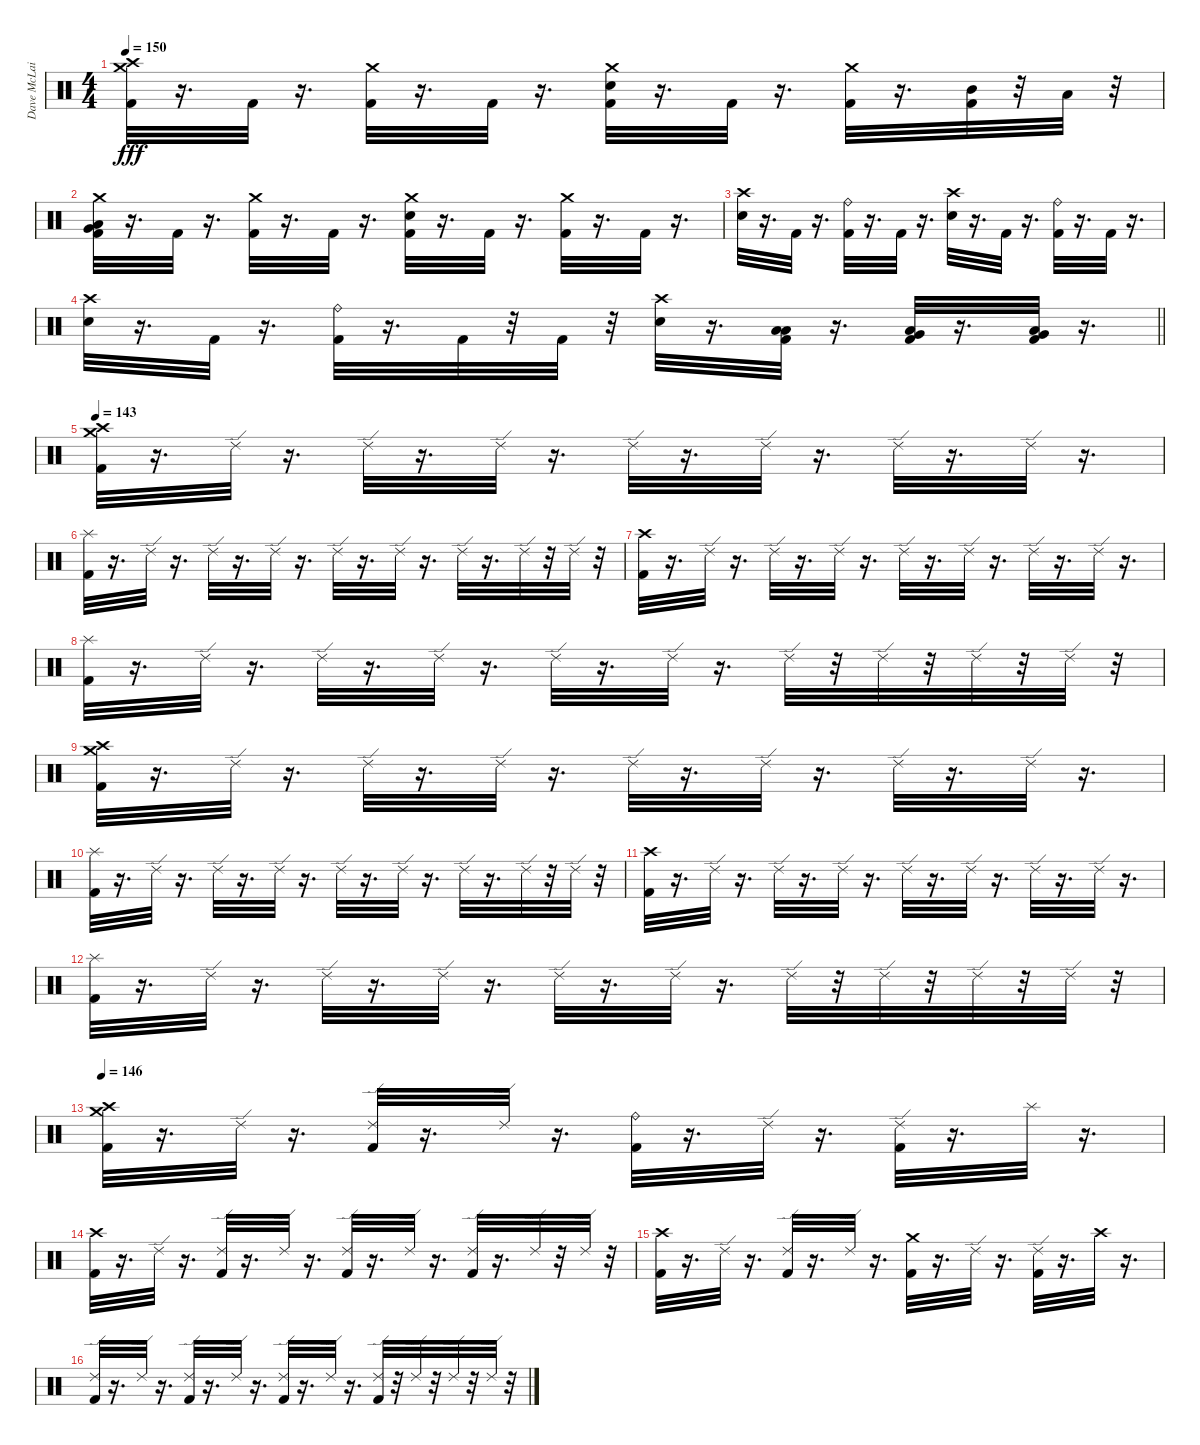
\track ("Dave McLain" "Dave McLai") {instrument percussion}
\staff {score}
\articulation defaults
\ts (4 4)
\tempo 150
\clef neutral
\ks c
("Crash high (hit)" "Crash medium (hit)" "Kick (hit) 2").32{dy fff} r.16{d} "Kick (hit) 2".32 r.16{d} ("Crash medium (hit)" "Kick (hit) 2").32 r.16{d} "Kick (hit) 2".32 r.16{d} ("Crash medium (hit)" "Snare (hit) 2" "Kick (hit) 2").32 r.16{d} "Kick (hit) 2".32 r.16{d} ("Crash medium (hit)" "Kick (hit) 2").32 r.16{d} ("Mid Tom (hit)" "Kick (hit) 2").32 r.32 "Low Tom (hit)".32 r.32 |
("Low Floor Tom (hit)" "Very Low Tom (hit)" "Crash medium (hit)" "Kick (hit) 2").32 r.16{d} "Kick (hit) 2".32 r.16{d} ("Crash medium (hit)" "Kick (hit) 2").32 r.16{d} "Kick (hit) 2".32 r.16{d} ("Crash medium (hit)" "Snare (hit) 2" "Kick (hit) 2").32 r.16{d} "Kick (hit) 2".32 r.16{d} ("Crash medium (hit)" "Kick (hit) 2").32 r.16{d} "Kick (hit) 2".32 r.16{d} |
("Snare (hit) 2" "Crash high (hit)").32 r.16{d} "Kick (hit) 2".32 r.16{d} ("Ride (bell)" "Kick (hit) 2").32 r.16{d} "Kick (hit) 2".32 r.16{d} ("Crash high (hit)" "Snare (hit) 2").32 r.16{d} "Kick (hit) 2".32 r.16{d} ("Ride (bell)" "Kick (hit) 2").32 r.16{d} "Kick (hit) 2".32 r.16{d} |
\barLineRight lightlight
("Crash high (hit)" "Snare (hit) 2").32 r.16{d} "Kick (hit) 2".32 r.16{d} ("Ride (bell)" "Kick (hit) 2").32 r.16{d} "Kick (hit) 2".32 r.32 "Kick (hit) 2".32 r.32 ("Crash high (hit)" "Snare (hit) 2").32 r.16{d} ("Low Tom (hit)" "Low Floor Tom (hit)" "Kick (hit) 2").32 r.16{d} ("Very Low Tom (hit)" "Low Floor Tom (hit)" "Kick (hit) 2").32 r.16{d} ("Very Low Tom (hit)" "Low Floor Tom (hit)" "Kick (hit) 2").32 r.16{d} |
\tempo 143
("Crash medium (hit)" "Crash high (hit)" "Kick (hit) 2").32 r.16{d} "Ride (edge) 2".32 r.16{d} "Ride (edge) 2".32 r.16{d} "Ride (edge) 2".32 r.16{d} "Ride (edge) 2".32 r.16{d} "Ride (edge) 2".32 r.16{d} "Ride (edge) 2".32 r.16{d} "Ride (edge) 2".32 r.16{d} |
("Splash (hit)" "Kick (hit) 2").32 r.16{d} "Ride (edge) 2".32 r.16{d} "Ride (edge) 2".32 r.16{d} "Ride (edge) 2".32 r.16{d} "Ride (edge) 2".32 r.16{d} "Ride (edge) 2".32 r.16{d} "Ride (edge) 2".32 r.16{d} "Ride (edge) 2".32 r.32 "Ride (edge) 2".32 r.32 |
("Crash high (hit)" "Kick (hit) 2").32 r.16{d} "Ride (edge) 2".32 r.16{d} "Ride (edge) 2".32 r.16{d} "Ride (edge) 2".32 r.16{d} "Ride (edge) 2".32 r.16{d} "Ride (edge) 2".32 r.16{d} "Ride (edge) 2".32 r.16{d} "Ride (edge) 2".32 r.16{d} |
("Splash (hit)" "Kick (hit) 2").32 r.16{d} "Ride (edge) 2".32 r.16{d} "Ride (edge) 2".32 r.16{d} "Ride (edge) 2".32 r.16{d} "Ride (edge) 2".32 r.16{d} "Ride (edge) 2".32 r.16{d} "Ride (edge) 2".32 r.32 "Ride (edge) 2".32 r.32 "Ride (edge) 2".32 r.32 "Ride (edge) 2".32 r.32 |
("Crash medium (hit)" "Crash high (hit)" "Kick (hit) 2").32 r.16{d} "Ride (edge) 2".32 r.16{d} "Ride (edge) 2".32 r.16{d} "Ride (edge) 2".32 r.16{d} "Ride (edge) 2".32 r.16{d} "Ride (edge) 2".32 r.16{d} "Ride (edge) 2".32 r.16{d} "Ride (edge) 2".32 r.16{d} |
("Splash (hit)" "Kick (hit) 2").32 r.16{d} "Ride (edge) 2".32 r.16{d} "Ride (edge) 2".32 r.16{d} "Ride (edge) 2".32 r.16{d} "Ride (edge) 2".32 r.16{d} "Ride (edge) 2".32 r.16{d} "Ride (edge) 2".32 r.16{d} "Ride (edge) 2".32 r.32 "Ride (edge) 2".32 r.32 |
("Crash high (hit)" "Kick (hit) 2").32 r.16{d} "Ride (edge) 2".32 r.16{d} "Ride (edge) 2".32 r.16{d} "Ride (edge) 2".32 r.16{d} "Ride (edge) 2".32 r.16{d} "Ride (edge) 2".32 r.16{d} "Ride (edge) 2".32 r.16{d} "Ride (edge) 2".32 r.16{d} |
("Splash (hit)" "Kick (hit) 2").32 r.16{d} "Ride (edge) 2".32 r.16{d} "Ride (edge) 2".32 r.16{d} "Ride (edge) 2".32 r.16{d} "Ride (edge) 2".32 r.16{d} "Ride (edge) 2".32 r.16{d} "Ride (edge) 2".32 r.32 "Ride (edge) 2".32 r.32 "Ride (edge) 2".32 r.32 "Ride (edge) 2".32 r.32 |
\tempo 146
("Crash medium (hit)" "Crash high (hit)" "Kick (hit) 2").32 r.16{d} "Ride (edge) 2".32 r.16{d} ("Kick (hit) 2" "Ride (edge) 2").32 r.16{d} "Ride (edge) 2".32 r.16{d} ("Ride (bell)" "Kick (hit) 2").32 r.16{d} "Ride (edge) 2".32 r.16{d} ("Kick (hit) 2" "Ride (edge) 2").32 r.16{d} "Splash (hit)".32 r.16{d} |
("Crash high (hit)" "Kick (hit) 2").32 r.16{d} "Ride (edge) 2".32 r.16{d} ("Kick (hit) 2" "Ride (edge) 2").32 r.16{d} "Ride (edge) 2".32 r.16{d} ("Kick (hit) 2" "Ride (edge) 2").32 r.16{d} "Ride (edge) 2".32 r.16{d} ("Kick (hit) 2" "Ride (edge) 2").32 r.16{d} "Ride (edge) 2".32 r.32 "Ride (edge) 2".32 r.32 |
("Crash high (hit)" "Kick (hit) 2").32 r.16{d} "Ride (edge) 2".32 r.16{d} ("Kick (hit) 2" "Ride (edge) 2").32 r.16{d} "Ride (edge) 2".32 r.16{d} ("Crash medium (hit)" "Kick (hit) 2").32 r.16{d} "Ride (edge) 2".32 r.16{d} ("Kick (hit) 2" "Ride (edge) 2").32 r.16{d} "Crash high (hit)".32 r.16{d} |
("Ride (edge) 2" "Kick (hit) 2").32 r.16{d} "Ride (edge) 2".32 r.16{d} ("Kick (hit) 2" "Ride (edge) 2").32 r.16{d} "Ride (edge) 2".32 r.16{d} ("Kick (hit) 2" "Ride (edge) 2").32 r.16{d} "Ride (edge) 2".32 r.16{d} ("Kick (hit) 2" "Ride (edge) 2").32 r.32 "Ride (edge) 2".32 r.32 "Ride (edge) 2".32 r.32 "Ride (edge) 2".32 r.32
